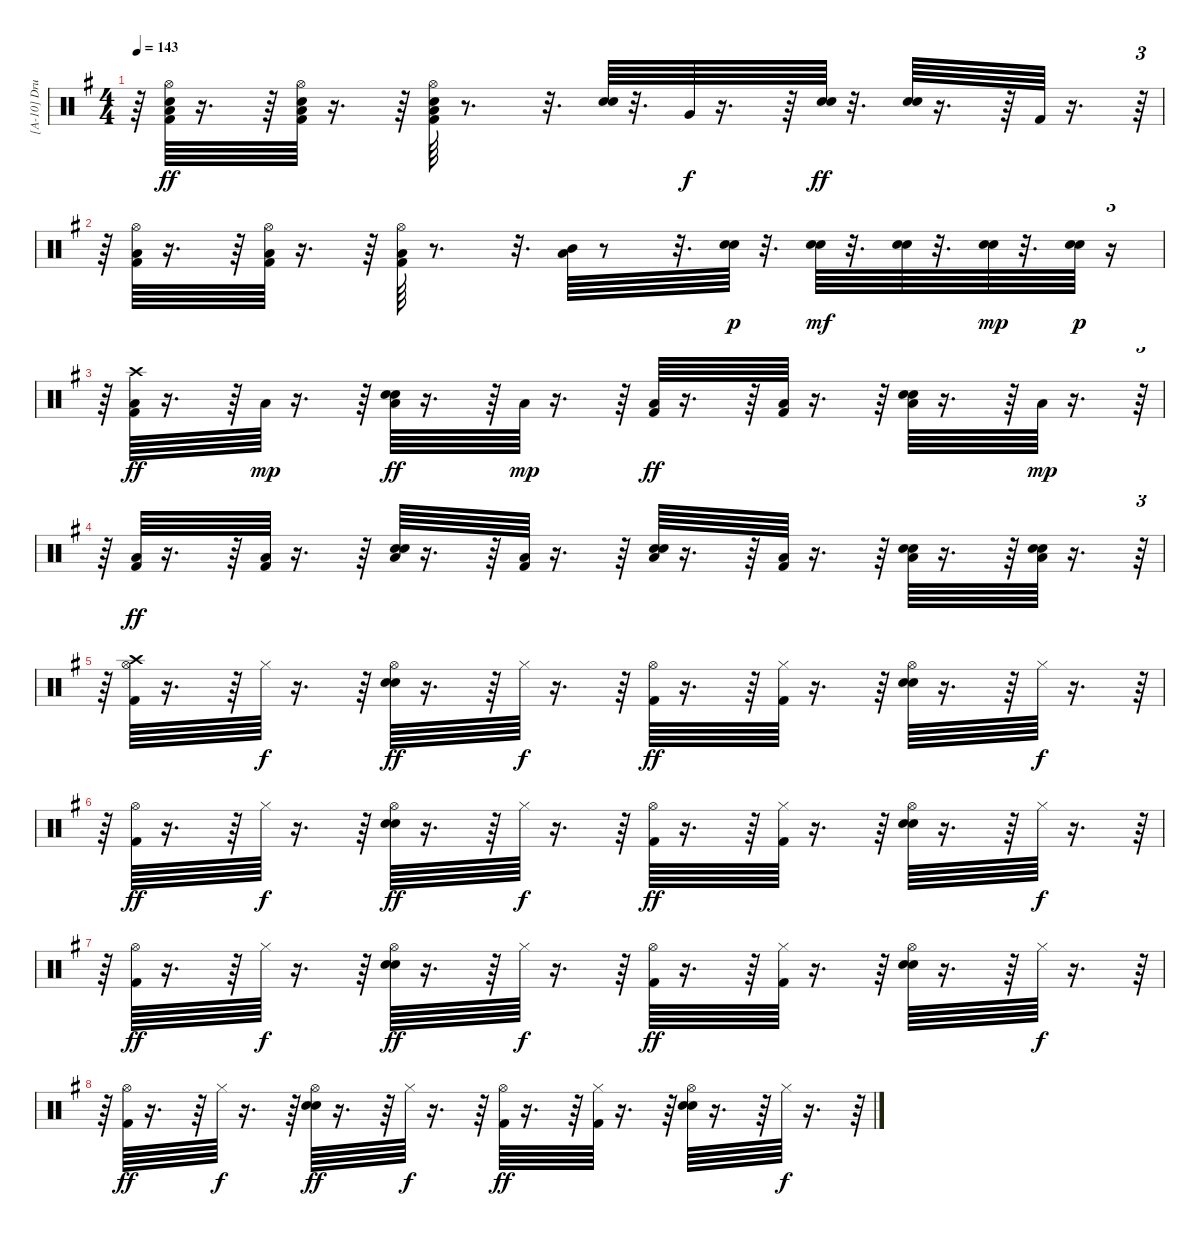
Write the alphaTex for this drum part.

\track ("[A-10] Drums" "[A-10] Dru") {instrument percussion}
\staff {score}
\articulation defaults
\ts (4 4)
\tempo 143
\clef neutral
\ks g
r.64{dy ff} ("Hi-Hat (open)" "Low Floor Tom (hit)" "Snare (hit) 2" "Kick (hit) 2").64 r.16{d} r.64 ("Hi-Hat (open)" "Low Floor Tom (hit)" "Snare (hit) 2" "Kick (hit) 2").64 r.16{d} r.64 ("Hi-Hat (open)" "Low Floor Tom (hit)" "Snare (hit) 2" "Kick (hit) 2").64 r.8{d} r.32{d} ("Electric Snare (hit)" "Snare (hit) 2").64 r.32{d} "Very Low Tom (hit)".64{dy f} r.16{d} r.64 ("Electric Snare (hit)" "Snare (hit) 2").64{dy ff} r.32{d} ("Electric Snare (hit)" "Snare (hit) 2").64 r.16{d} r.64 "Kick (hit) 2".64 r.16{d} r.64{tu (3 2)} |
r.64 ("Hi-Hat (open)" "Low Floor Tom (hit)" "Kick (hit) 2").64 r.16{d} r.64 ("Hi-Hat (open)" "Low Floor Tom (hit)" "Kick (hit) 2").64 r.16{d} r.64 ("Hi-Hat (open)" "Low Floor Tom (hit)" "Kick (hit) 2").64 r.8{d} r.32{d} ("Low Floor Tom (hit)" "Mid Tom (hit)").64 r.8 r.32{d} ("Electric Snare (hit)" "Snare (hit) 2").64{dy p} r.32{d} ("Electric Snare (hit)" "Snare (hit) 2").64{dy mf} r.32{d} ("Electric Snare (hit)" "Snare (hit) 2").64 r.32{d} ("Electric Snare (hit)" "Snare (hit) 2").64{dy mp} r.32{d} ("Electric Snare (hit)" "Snare (hit) 2").64{dy p} r.16{tu (3 2)} |
r.64 ("Crash high (hit)" "Low Floor Tom (hit)" "Kick (hit) 2").64{dy ff} r.16{d} r.64 "Low Floor Tom (hit)".64{dy mp} r.16{d} r.64 ("Low Floor Tom (hit)" "Electric Snare (hit)" "Snare (hit) 2").64{dy ff} r.16{d} r.64 "Low Floor Tom (hit)".64{dy mp} r.16{d} r.64 ("Low Floor Tom (hit)" "Kick (hit) 2").64{dy ff} r.16{d} r.64 ("Low Floor Tom (hit)" "Kick (hit) 2").64 r.16{d} r.64 ("Low Floor Tom (hit)" "Electric Snare (hit)" "Snare (hit) 2").64 r.16{d} r.64 "Low Floor Tom (hit)".64{dy mp} r.16{d} r.64{tu (3 2)} |
r.64 ("Low Floor Tom (hit)" "Kick (hit) 2").64{dy ff} r.16{d} r.64 ("Low Floor Tom (hit)" "Kick (hit) 2").64 r.16{d} r.64 ("Low Floor Tom (hit)" "Electric Snare (hit)" "Snare (hit) 2").64 r.16{d} r.64 ("Low Floor Tom (hit)" "Kick (hit) 2").64 r.16{d} r.64 ("Low Floor Tom (hit)" "Electric Snare (hit)" "Snare (hit) 2").64 r.16{d} r.64 ("Low Floor Tom (hit)" "Kick (hit) 2").64 r.16{d} r.64 ("Low Floor Tom (hit)" "Electric Snare (hit)" "Snare (hit) 2").64 r.16{d} r.64 ("Low Floor Tom (hit)" "Electric Snare (hit)" "Snare (hit) 2").64 r.16{d} r.64{tu (3 2)} |
r.64 ("Crash high (hit)" "Hi-Hat (open)" "Kick (hit) 2").64 r.16{d} r.64 "Hi-Hat (closed)".64{dy f} r.16{d} r.64 ("Hi-Hat (open)" "Electric Snare (hit)" "Snare (hit) 2").64{dy ff} r.16{d} r.64 "Hi-Hat (closed)".64{dy f} r.16{d} r.64 ("Hi-Hat (open)" "Kick (hit) 2").64{dy ff} r.16{d} r.64 ("Hi-Hat (closed)" "Kick (hit) 2").64 r.16{d} r.64 ("Hi-Hat (open)" "Electric Snare (hit)" "Snare (hit) 2").64 r.16{d} r.64 "Hi-Hat (closed)".64{dy f} r.16{d} r.64{tu (3 2)} |
r.64 ("Hi-Hat (open)" "Kick (hit) 2").64{dy ff} r.16{d} r.64 "Hi-Hat (closed)".64{dy f} r.16{d} r.64 ("Hi-Hat (open)" "Electric Snare (hit)" "Snare (hit) 2").64{dy ff} r.16{d} r.64 "Hi-Hat (closed)".64{dy f} r.16{d} r.64 ("Hi-Hat (open)" "Kick (hit) 2").64{dy ff} r.16{d} r.64 ("Hi-Hat (closed)" "Kick (hit) 2").64 r.16{d} r.64 ("Hi-Hat (open)" "Electric Snare (hit)" "Snare (hit) 2").64 r.16{d} r.64 "Hi-Hat (closed)".64{dy f} r.16{d} r.64{tu (3 2)} |
r.64 ("Hi-Hat (open)" "Kick (hit) 2").64{dy ff} r.16{d} r.64 "Hi-Hat (closed)".64{dy f} r.16{d} r.64 ("Hi-Hat (open)" "Electric Snare (hit)" "Snare (hit) 2").64{dy ff} r.16{d} r.64 "Hi-Hat (closed)".64{dy f} r.16{d} r.64 ("Hi-Hat (open)" "Kick (hit) 2").64{dy ff} r.16{d} r.64 ("Hi-Hat (closed)" "Kick (hit) 2").64 r.16{d} r.64 ("Hi-Hat (open)" "Electric Snare (hit)" "Snare (hit) 2").64 r.16{d} r.64 "Hi-Hat (closed)".64{dy f} r.16{d} r.64{tu (3 2)} |
r.64 ("Hi-Hat (open)" "Kick (hit) 2").64{dy ff} r.16{d} r.64 "Hi-Hat (closed)".64{dy f} r.16{d} r.64 ("Hi-Hat (open)" "Electric Snare (hit)" "Snare (hit) 2").64{dy ff} r.16{d} r.64 "Hi-Hat (closed)".64{dy f} r.16{d} r.64 ("Hi-Hat (open)" "Kick (hit) 2").64{dy ff} r.16{d} r.64 ("Hi-Hat (closed)" "Kick (hit) 2").64 r.16{d} r.64 ("Hi-Hat (open)" "Electric Snare (hit)" "Snare (hit) 2").64 r.16{d} r.64 "Hi-Hat (closed)".64{dy f} r.16{d} r.64{tu (3 2)}
